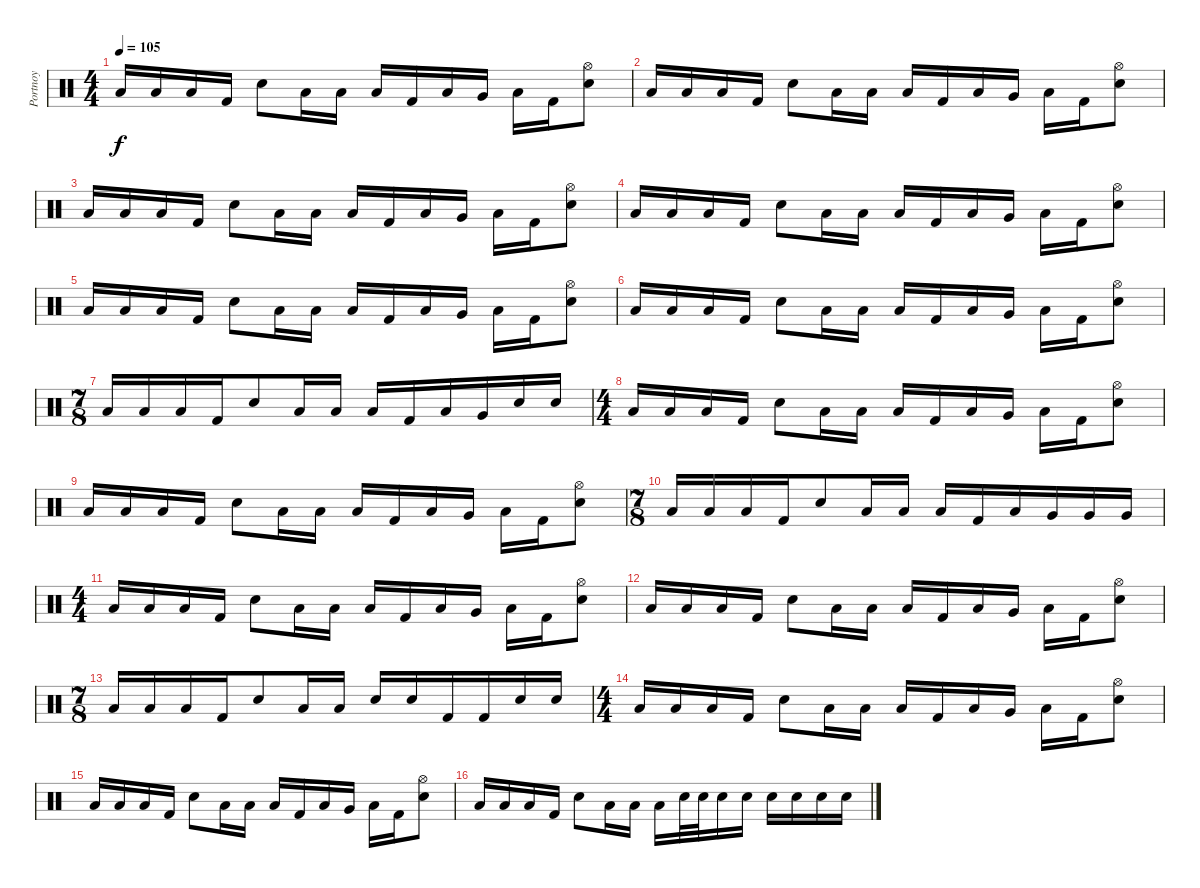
\track ("Portnoy" "Portnoy") {instrument percussion}
\staff {score}
\articulation defaults
\ts (4 4)
\tempo 105
\clef neutral
\ks c "Low Floor Tom (hit)".16{dy f} "Low Tom (hit)".16 "Low Floor Tom (hit)".16 "Kick (hit) 2".16 "Electric Snare (hit)".8 "Low Floor Tom (hit)".16 "Low Tom (hit)".16 "Low Floor Tom (hit)".16 "Kick (hit) 2".16 "Low Floor Tom (hit)".16 "Very Low Tom (hit)".16 "Low Floor Tom (hit)".16 "Kick (hit) 2".16
("Hi-Hat (open)" "Electric Snare (hit)").8 |
"Low Floor Tom (hit)".16 "Low Tom (hit)".16 "Low Floor Tom (hit)".16 "Kick (hit) 2".16 "Electric Snare (hit)".8 "Low Floor Tom (hit)".16 "Low Tom (hit)".16 "Low Floor Tom (hit)".16 "Kick (hit) 2".16 "Low Floor Tom (hit)".16 "Very Low Tom (hit)".16 "Low Floor Tom (hit)".16 "Kick (hit) 2".16 ("Hi-Hat (open)" "Electric Snare (hit)").8 |
"Low Floor Tom (hit)".16 "Low Tom (hit)".16 "Low Floor Tom (hit)".16 "Kick (hit) 2".16 "Electric Snare (hit)".8 "Low Floor Tom (hit)".16 "Low Tom (hit)".16 "Low Floor Tom (hit)".16 "Kick (hit) 2".16 "Low Floor Tom (hit)".16 "Very Low Tom (hit)".16 "Low Floor Tom (hit)".16 "Kick (hit) 2".16 ("Hi-Hat (open)" "Electric Snare (hit)").8 |
"Low Floor Tom (hit)".16 "Low Tom (hit)".16 "Low Floor Tom (hit)".16 "Kick (hit) 2".16 "Electric Snare (hit)".8 "Low Floor Tom (hit)".16 "Low Tom (hit)".16 "Low Floor Tom (hit)".16 "Kick (hit) 2".16 "Low Floor Tom (hit)".16 "Very Low Tom (hit)".16 "Low Floor Tom (hit)".16 "Kick (hit) 2".16 ("Hi-Hat (open)" "Electric Snare (hit)").8 |
"Low Floor Tom (hit)".16 "Low Tom (hit)".16 "Low Floor Tom (hit)".16 "Kick (hit) 2".16 "Electric Snare (hit)".8 "Low Floor Tom (hit)".16 "Low Tom (hit)".16 "Low Floor Tom (hit)".16 "Kick (hit) 2".16 "Low Floor Tom (hit)".16 "Very Low Tom (hit)".16 "Low Floor Tom (hit)".16 "Kick (hit) 2".16 ("Hi-Hat (open)" "Electric Snare (hit)").8 |
"Low Floor Tom (hit)".16 "Low Tom (hit)".16 "Low Floor Tom (hit)".16 "Kick (hit) 2".16 "Electric Snare (hit)".8 "Low Floor Tom (hit)".16 "Low Tom (hit)".16 "Low Floor Tom (hit)".16 "Kick (hit) 2".16 "Low Floor Tom (hit)".16 "Very Low Tom (hit)".16 "Low Floor Tom (hit)".16 "Kick (hit) 2".16 ("Hi-Hat (open)" "Electric Snare (hit)").8 |
\ts (7 8)
"Low Floor Tom (hit)".16 "Low Tom (hit)".16 "Low Floor Tom (hit)".16 "Kick (hit) 2".16 "Electric Snare (hit)".8 "Low Floor Tom (hit)".16 "Low Tom (hit)".16 "Low Floor Tom (hit)".16 "Kick (hit) 2".16 "Low Floor Tom (hit)".16 "Very Low Tom (hit)".16 "Electric Snare (hit)".16 "Electric Snare (hit)".16 |
\ts (4 4)
"Low Floor Tom (hit)".16 "Low Tom (hit)".16 "Low Floor Tom (hit)".16 "Kick (hit) 2".16 "Electric Snare (hit)".8 "Low Floor Tom (hit)".16 "Low Tom (hit)".16 "Low Floor Tom (hit)".16 "Kick (hit) 2".16 "Low Floor Tom (hit)".16 "Very Low Tom (hit)".16 "Low Floor Tom (hit)".16 "Kick (hit) 2".16 ("Hi-Hat (open)" "Electric Snare (hit)").8 |
"Low Floor Tom (hit)".16 "Low Tom (hit)".16 "Low Floor Tom (hit)".16 "Kick (hit) 2".16 "Electric Snare (hit)".8 "Low Floor Tom (hit)".16 "Low Tom (hit)".16 "Low Floor Tom (hit)".16 "Kick (hit) 2".16 "Low Floor Tom (hit)".16 "Very Low Tom (hit)".16 "Low Floor Tom (hit)".16 "Kick (hit) 2".16 ("Hi-Hat (open)" "Electric Snare (hit)").8 |
\ts (7 8)
"Low Floor Tom (hit)".16 "Low Tom (hit)".16 "Low Floor Tom (hit)".16 "Kick (hit) 2".16 "Electric Snare (hit)".8 "Low Floor Tom (hit)".16 "Low Tom (hit)".16 "Low Floor Tom (hit)".16 "Kick (hit) 2".16 "Low Floor Tom (hit)".16 "Very Low Tom (hit)".16 "Very Low Tom (hit)".16 "Very Low Tom (hit)".16 |
\ts (4 4)
"Low Floor Tom (hit)".16 "Low Tom (hit)".16 "Low Floor Tom (hit)".16 "Kick (hit) 2".16 "Electric Snare (hit)".8 "Low Floor Tom (hit)".16 "Low Tom (hit)".16 "Low Floor Tom (hit)".16 "Kick (hit) 2".16 "Low Floor Tom (hit)".16 "Very Low Tom (hit)".16 "Low Floor Tom (hit)".16 "Kick (hit) 2".16 ("Hi-Hat (open)" "Electric Snare (hit)").8 |
"Low Floor Tom (hit)".16 "Low Tom (hit)".16 "Low Floor Tom (hit)".16 "Kick (hit) 2".16 "Electric Snare (hit)".8 "Low Floor Tom (hit)".16 "Low Tom (hit)".16 "Low Floor Tom (hit)".16 "Kick (hit) 2".16 "Low Floor Tom (hit)".16 "Very Low Tom (hit)".16 "Low Floor Tom (hit)".16 "Kick (hit) 2".16 ("Hi-Hat (open)" "Electric Snare (hit)").8 |
\ts (7 8)
"Low Floor Tom (hit)".16 "Low Tom (hit)".16 "Low Floor Tom (hit)".16 "Kick (hit) 2".16 "Electric Snare (hit)".8 "Low Floor Tom (hit)".16 "Low Tom (hit)".16 "Electric Snare (hit)".16 "Electric Snare (hit)".16 "Kick (hit) 2".16 "Kick (hit) 2".16 "Electric Snare (hit)".16 "Electric Snare (hit)".16 |
\ts (4 4)
"Low Floor Tom (hit)".16 "Low Tom (hit)".16 "Low Floor Tom (hit)".16 "Kick (hit) 2".16 "Electric Snare (hit)".8 "Low Floor Tom (hit)".16 "Low Tom (hit)".16 "Low Floor Tom (hit)".16 "Kick (hit) 2".16 "Low Floor Tom (hit)".16 "Very Low Tom (hit)".16 "Low Floor Tom (hit)".16 "Kick (hit) 2".16 ("Hi-Hat (open)" "Electric Snare (hit)").8 |
"Low Floor Tom (hit)".16 "Low Tom (hit)".16 "Low Floor Tom (hit)".16 "Kick (hit) 2".16 "Electric Snare (hit)".8 "Low Floor Tom (hit)".16 "Low Tom (hit)".16 "Low Floor Tom (hit)".16 "Kick (hit) 2".16 "Low Floor Tom (hit)".16 "Very Low Tom (hit)".16 "Low Floor Tom (hit)".16 "Kick (hit) 2".16 ("Hi-Hat (open)" "Electric Snare (hit)").8 |
"Low Floor Tom (hit)".16 "Low Tom (hit)".16 "Low Floor Tom (hit)".16 "Kick (hit) 2".16 "Electric Snare (hit)".8 "Low Floor Tom (hit)".16 "Low Tom (hit)".16 "Low Floor Tom (hit)".16 "Electric Snare (hit)".32 "Electric Snare (hit)".32 "Electric Snare (hit)".16 "Electric Snare (hit)".16 "Electric Snare (hit)".16 "Electric Snare (hit)".16 "Electric Snare (hit)".16 "Electric Snare (hit)".16
